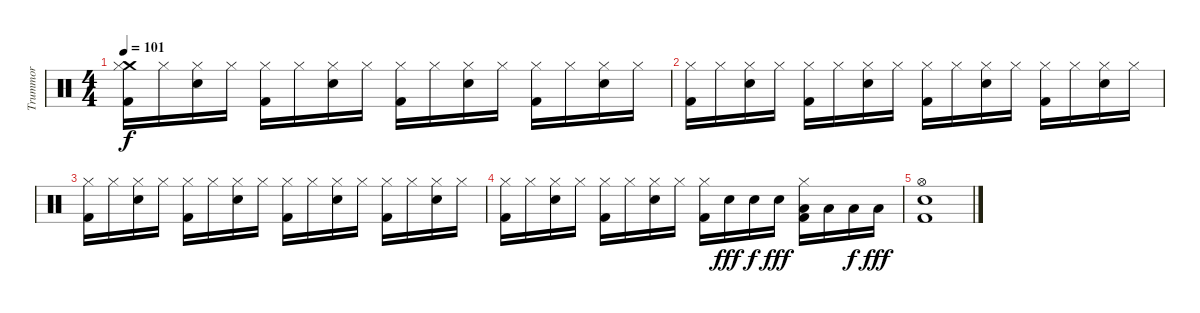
\track ("Trummor" "Trummor") {instrument percussion}
\staff {score}
\articulation defaults
\ts (4 4)
\tempo 101
\clef neutral
\ks c
("Crash medium (hit)" "Hi-Hat (closed)" "Kick (hit) 2").16{dy f} "Hi-Hat (closed)".16 ("Hi-Hat (closed)" "Electric Snare (hit)").16 "Hi-Hat (closed)".16 ("Hi-Hat (closed)" "Kick (hit) 2").16 "Hi-Hat (closed)".16 ("Hi-Hat (closed)" "Electric Snare (hit)").16 "Hi-Hat (closed)".16 ("Hi-Hat (closed)" "Kick (hit) 2").16 "Hi-Hat (closed)".16 ("Hi-Hat (closed)" "Electric Snare (hit)").16 "Hi-Hat (closed)".16 ("Hi-Hat (closed)" "Kick (hit) 2").16 "Hi-Hat (closed)".16 ("Hi-Hat (closed)" "Electric Snare (hit)").16 "Hi-Hat (closed)".16 |
("Hi-Hat (closed)" "Kick (hit) 2").16 "Hi-Hat (closed)".16 ("Hi-Hat (closed)" "Electric Snare (hit)").16 "Hi-Hat (closed)".16 ("Hi-Hat (closed)" "Kick (hit) 2").16 "Hi-Hat (closed)".16 ("Hi-Hat (closed)" "Electric Snare (hit)").16 "Hi-Hat (closed)".16 ("Hi-Hat (closed)" "Kick (hit) 2").16 "Hi-Hat (closed)".16 ("Hi-Hat (closed)" "Electric Snare (hit)").16 "Hi-Hat (closed)".16 ("Hi-Hat (closed)" "Kick (hit) 2").16 "Hi-Hat (closed)".16 ("Hi-Hat (closed)" "Electric Snare (hit)").16 "Hi-Hat (closed)".16 |
("Hi-Hat (closed)" "Kick (hit) 2").16 "Hi-Hat (closed)".16 ("Hi-Hat (closed)" "Electric Snare (hit)").16 "Hi-Hat (closed)".16 ("Hi-Hat (closed)" "Kick (hit) 2").16 "Hi-Hat (closed)".16 ("Hi-Hat (closed)" "Electric Snare (hit)").16 "Hi-Hat (closed)".16 ("Hi-Hat (closed)" "Kick (hit) 2").16 "Hi-Hat (closed)".16 ("Hi-Hat (closed)" "Electric Snare (hit)").16 "Hi-Hat (closed)".16 ("Hi-Hat (closed)" "Kick (hit) 2").16 "Hi-Hat (closed)".16 ("Hi-Hat (closed)" "Electric Snare (hit)").16 "Hi-Hat (closed)".16 |
("Hi-Hat (closed)" "Kick (hit) 2").16 "Hi-Hat (closed)".16 ("Hi-Hat (closed)" "Electric Snare (hit)").16 "Hi-Hat (closed)".16 ("Hi-Hat (closed)" "Kick (hit) 2").16 "Hi-Hat (closed)".16 ("Hi-Hat (closed)" "Electric Snare (hit)").16 "Hi-Hat (closed)".16 ("Hi-Hat (closed)" "Kick (hit) 2").16 "Electric Snare (hit)".16{dy fff} "Electric Snare (hit)".16{dy f} "Electric Snare (hit)".16{dy fff} ("Hi-Hat (closed)" "Low Tom (hit)" "Kick (hit) 2").16 "Low Tom (hit)".16 "Low Tom (hit)".16{dy f} "Low Tom (hit)".16{dy fff} |
("Hi-Hat (open)" "Electric Snare (hit)" "Kick (hit) 2").1
